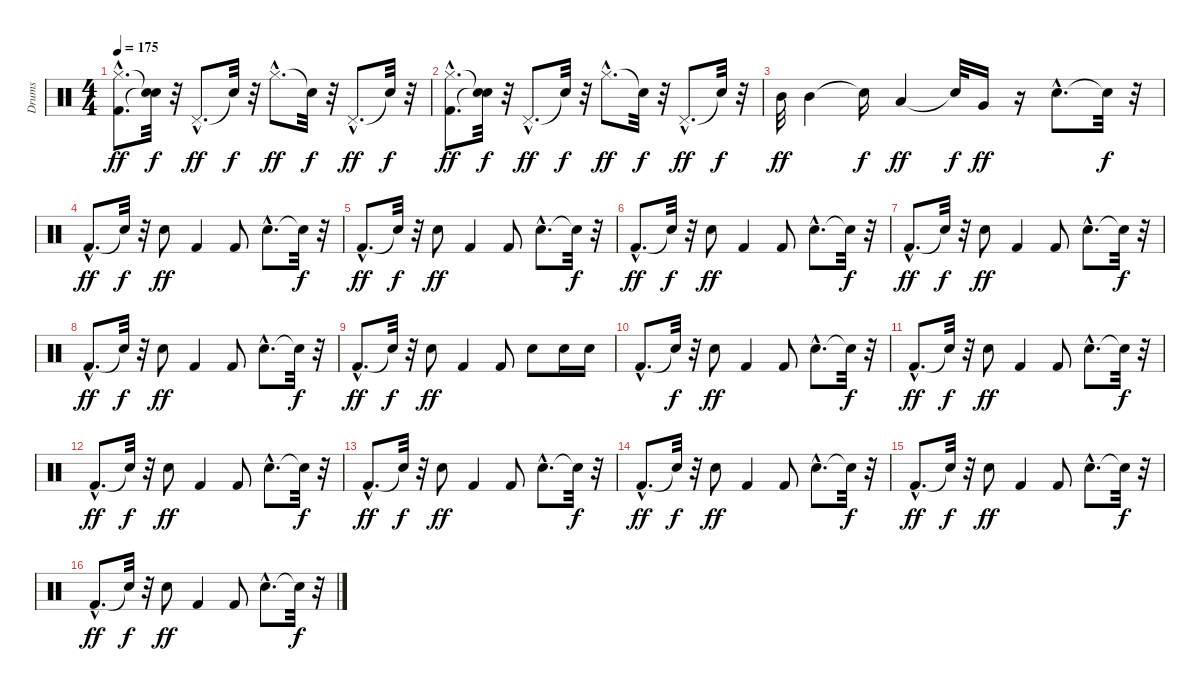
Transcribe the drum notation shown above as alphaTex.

\track ("Drums" "Drums") {instrument percussion}
\staff {score}
\articulation defaults
\ts (4 4)
\tempo 175
\clef neutral
\ks c
("Kick (hit) 2"{hac} "Hi-Hat (closed)"{hac}).8{d dy ff} ("Snare (hit)"{t} "Snare (hit)"{t}).32{dy f} r.32 "Pedal Hi-Hat (hit)"{hac}.8{d dy ff} "Snare (hit)"{t}.32{dy f} r.32 "Hi-Hat (closed)"{hac}.8{d dy ff} "Snare (hit)"{t}.32{dy f} r.32 "Pedal Hi-Hat (hit)"{hac}.8{d dy ff} "Snare (hit)"{t}.32{dy f} r.32 |
("Kick (hit) 2"{hac} "Hi-Hat (closed)"{hac}).8{d dy ff} ("Snare (hit)"{t} "Snare (hit)"{t}).32{dy f} r.32 "Pedal Hi-Hat (hit)"{hac}.8{d dy ff} "Snare (hit)"{t}.32{dy f} r.32 "Hi-Hat (closed)"{hac}.8{d dy ff} "Snare (hit)"{t}.32{dy f} r.32 "Pedal Hi-Hat (hit)"{hac}.8{d dy ff} "Snare (hit)"{t}.32{dy f} r.32 |
"Mid Tom (hit)".32{dy ff} "Mid Tom (hit)".4 "Snare (hit)"{t}.16{dy f} "Low Tom (hit)".4{dy ff} "Snare (hit)"{t}.32{dy f} "Very Low Tom (hit)".16{dy ff} r.16 "Electric Snare (hit)"{hac}.8{d} "Snare (hit)"{t}.32{dy f} r.32 |
"Kick (hit) 2"{hac}.8{d dy ff} "Snare (hit)"{t}.32{dy f} r.32 "Electric Snare (hit)".8{dy ff} "Kick (hit) 2".4 "Kick (hit) 2".8 "Electric Snare (hit)"{hac}.8{d} "Snare (hit)"{t}.32{dy f} r.32 |
"Kick (hit) 2"{hac}.8{d dy ff} "Snare (hit)"{t}.32{dy f} r.32 "Electric Snare (hit)".8{dy ff} "Kick (hit) 2".4 "Kick (hit) 2".8 "Electric Snare (hit)"{hac}.8{d} "Snare (hit)"{t}.32{dy f} r.32 |
"Kick (hit) 2"{hac}.8{d dy ff} "Snare (hit)"{t}.32{dy f} r.32 "Electric Snare (hit)".8{dy ff} "Kick (hit) 2".4 "Kick (hit) 2".8 "Electric Snare (hit)"{hac}.8{d} "Snare (hit)"{t}.32{dy f} r.32 |
"Kick (hit) 2"{hac}.8{d dy ff} "Snare (hit)"{t}.32{dy f} r.32 "Electric Snare (hit)".8{dy ff} "Kick (hit) 2".4 "Kick (hit) 2".8 "Electric Snare (hit)"{hac}.8{d} "Snare (hit)"{t}.32{dy f} r.32 |
"Kick (hit) 2"{hac}.8{d dy ff} "Snare (hit)"{t}.32{dy f} r.32 "Electric Snare (hit)".8{dy ff} "Kick (hit) 2".4 "Kick (hit) 2".8 "Electric Snare (hit)"{hac}.8{d} "Snare (hit)"{t}.32{dy f} r.32 |
"Kick (hit) 2"{hac}.8{d dy ff} "Snare (hit)"{t}.32{dy f} r.32 "Electric Snare (hit)".8{dy ff} "Kick (hit) 2".4 "Kick (hit) 2".8 "Electric Snare (hit)".8 "Electric Snare (hit)".16 "Electric Snare (hit)".16 |
"Kick (hit) 2"{hac}.8{d} "Snare (hit)"{t}.32{dy f} r.32 "Electric Snare (hit)".8{dy ff} "Kick (hit) 2".4 "Kick (hit) 2".8 "Electric Snare (hit)"{hac}.8{d} "Snare (hit)"{t}.32{dy f} r.32 |
"Kick (hit) 2"{hac}.8{d dy ff} "Snare (hit)"{t}.32{dy f} r.32 "Electric Snare (hit)".8{dy ff} "Kick (hit) 2".4 "Kick (hit) 2".8 "Electric Snare (hit)"{hac}.8{d} "Snare (hit)"{t}.32{dy f} r.32 |
"Kick (hit) 2"{hac}.8{d dy ff} "Snare (hit)"{t}.32{dy f} r.32 "Electric Snare (hit)".8{dy ff} "Kick (hit) 2".4 "Kick (hit) 2".8 "Electric Snare (hit)"{hac}.8{d} "Snare (hit)"{t}.32{dy f} r.32 |
"Kick (hit) 2"{hac}.8{d dy ff} "Snare (hit)"{t}.32{dy f} r.32 "Electric Snare (hit)".8{dy ff} "Kick (hit) 2".4 "Kick (hit) 2".8 "Electric Snare (hit)"{hac}.8{d} "Snare (hit)"{t}.32{dy f} r.32 |
"Kick (hit) 2"{hac}.8{d dy ff} "Snare (hit)"{t}.32{dy f} r.32 "Electric Snare (hit)".8{dy ff} "Kick (hit) 2".4 "Kick (hit) 2".8 "Electric Snare (hit)"{hac}.8{d} "Snare (hit)"{t}.32{dy f} r.32 |
"Kick (hit) 2"{hac}.8{d dy ff} "Snare (hit)"{t}.32{dy f} r.32 "Electric Snare (hit)".8{dy ff} "Kick (hit) 2".4 "Kick (hit) 2".8 "Electric Snare (hit)"{hac}.8{d} "Snare (hit)"{t}.32{dy f} r.32 |
"Kick (hit) 2"{hac}.8{d dy ff} "Snare (hit)"{t}.32{dy f} r.32 "Electric Snare (hit)".8{dy ff} "Kick (hit) 2".4 "Kick (hit) 2".8 "Electric Snare (hit)"{hac}.8{d} "Snare (hit)"{t}.32{dy f} r.32
